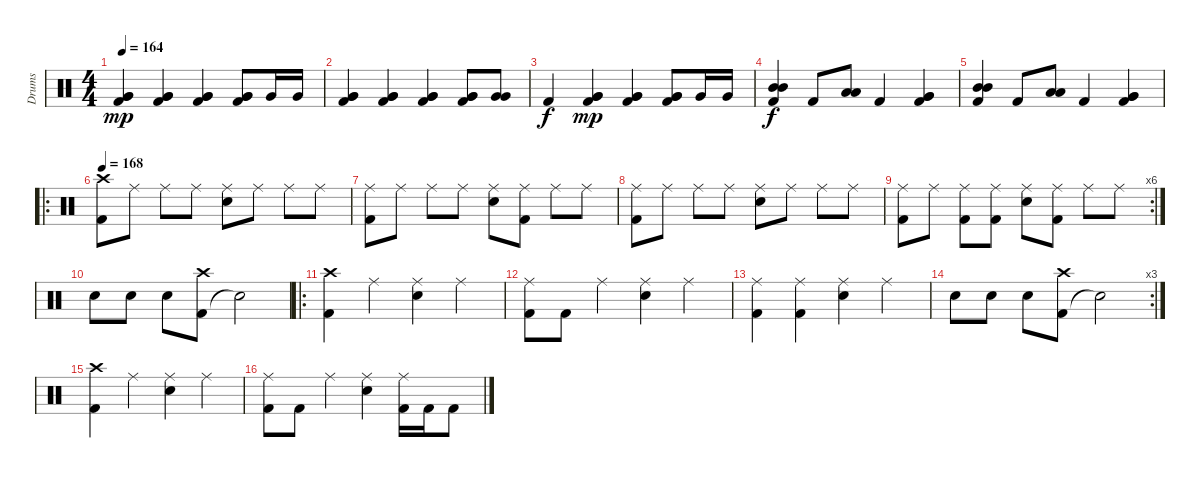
\track ("Drums" "Drums") {instrument percussion}
\staff {score}
\articulation defaults
\ts (4 4)
\tempo 164
\clef neutral
\ks c
("Very Low Tom (hit)" "Very Low Tom (hit)" "Kick (hit) 2").4{dy mp} ("Very Low Tom (hit)" "Very Low Tom (hit)" "Kick (hit) 2").4 ("Very Low Tom (hit)" "Very Low Tom (hit)" "Kick (hit) 2").4 ("Very Low Tom (hit)" "Very Low Tom (hit)" "Kick (hit) 2").8 "Very Low Tom (hit)".16 "Very Low Tom (hit)".16 |
("Very Low Tom (hit)" "Very Low Tom (hit)" "Kick (hit) 2").4 ("Very Low Tom (hit)" "Very Low Tom (hit)" "Kick (hit) 2").4 ("Very Low Tom (hit)" "Very Low Tom (hit)" "Kick (hit) 2").4 ("Very Low Tom (hit)" "Very Low Tom (hit)" "Kick (hit) 2").8 ("Very Low Tom (hit)" "Very Low Tom (hit)").8 |
"Kick (hit) 2".4{dy f} ("Very Low Tom (hit)" "Very Low Tom (hit)" "Kick (hit) 2").4{dy mp} ("Very Low Tom (hit)" "Very Low Tom (hit)" "Kick (hit) 2").4 ("Very Low Tom (hit)" "Very Low Tom (hit)" "Kick (hit) 2").8 "Very Low Tom (hit)".16 "Very Low Tom (hit)".16 |
("Mid Tom (hit)" "Mid Tom (hit)" "Kick (hit) 2").4{dy f} "Kick (hit) 2".8 ("Low Tom (hit)" "Low Tom (hit)").8 "Kick (hit) 2".4 ("Very Low Tom (hit)" "Very Low Tom (hit)" "Kick (hit) 2").4 |
("Mid Tom (hit)" "Mid Tom (hit)" "Kick (hit) 2").4 "Kick (hit) 2".8 ("Low Tom (hit)" "Low Tom (hit)").8 "Kick (hit) 2".4 ("Very Low Tom (hit)" "Very Low Tom (hit)" "Kick (hit) 2").4 |
\ro
\tempo 168
("Kick (hit) 2" "Crash high (hit)").8 "Ride (middle)".8 "Ride (middle)".8 "Ride (middle)".8 ("Snare (hit) 2" "Ride (middle)").8 "Ride (middle)".8 "Ride (middle)".8 "Ride (middle)".8 |
("Kick (hit) 2" "Ride (middle)").8 "Ride (middle)".8 "Ride (middle)".8 "Ride (middle)".8 ("Snare (hit) 2" "Ride (middle)").8 ("Kick (hit) 2" "Ride (middle)").8 "Ride (middle)".8 "Ride (middle)".8 |
("Kick (hit) 2" "Ride (middle)").8 "Ride (middle)".8 "Ride (middle)".8 "Ride (middle)".8 ("Snare (hit) 2" "Ride (middle)").8 "Ride (middle)".8 "Ride (middle)".8 "Ride (middle)".8 |
\rc 6
("Kick (hit) 2" "Ride (middle)").8 "Ride (middle)".8 ("Kick (hit) 2" "Ride (middle)").8 ("Kick (hit) 2" "Ride (middle)").8 ("Snare (hit) 2" "Ride (middle)").8 ("Kick (hit) 2" "Ride (middle)").8 "Ride (middle)".8 "Ride (middle)".8 |
"Snare (hit) 2".8 "Snare (hit) 2".8 "Snare (hit) 2".8 ("Kick (hit) 2" "Crash high (hit)").8 "Snare (hit)"{t}.2 |
\ro
("Kick (hit) 2" "Crash high (hit)").4 "Ride (middle)".4 ("Snare (hit) 2" "Ride (middle)").4 "Ride (middle)".4 |
("Kick (hit) 2" "Ride (middle)").8 "Kick (hit) 2".8 "Ride (middle)".4 ("Snare (hit) 2" "Ride (middle)").4 "Ride (middle)".4 |
("Kick (hit) 2" "Ride (middle)").4 ("Kick (hit) 2" "Ride (middle)").4 ("Snare (hit) 2" "Ride (middle)").4 "Ride (middle)".4 |
\rc 3 "Snare (hit) 2".8 "Snare (hit) 2".8 "Snare (hit) 2".8
("Kick (hit) 2" "Crash high (hit)").8 "Snare (hit)"{t}.2 |
("Kick (hit) 2" "Crash high (hit)").4 "Ride (middle)".4 ("Snare (hit) 2" "Ride (middle)").4 "Ride (middle)".4 |
("Kick (hit) 2" "Ride (middle)").8 "Kick (hit) 2".8 "Ride (middle)".4 ("Snare (hit) 2" "Ride (middle)").4 ("Kick (hit) 2" "Ride (middle)").16 "Kick (hit) 2".16 "Kick (hit) 2".8
